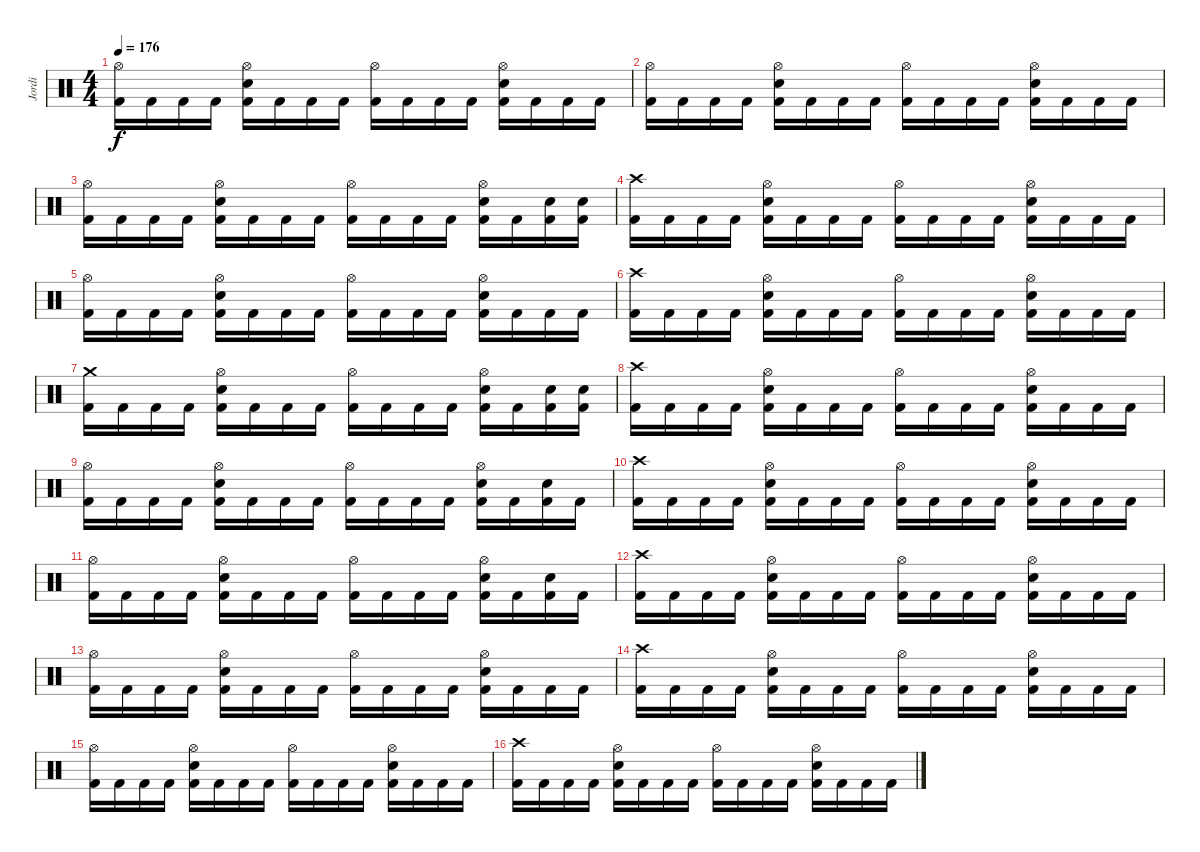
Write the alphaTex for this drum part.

\track ("Jordi" "Jordi") {instrument percussion}
\staff {score}
\articulation defaults
\ts (4 4)
\tempo 176
\clef neutral
\ks c
("Hi-Hat (open)" "Kick (hit) 2").16{dy f} "Kick (hit) 2".16 "Kick (hit) 2".16 "Kick (hit) 2".16 ("Hi-Hat (open)" "Snare (hit) 2" "Kick (hit) 2").16 "Kick (hit) 2".16 "Kick (hit) 2".16 "Kick (hit) 2".16 ("Hi-Hat (open)" "Kick (hit) 2").16 "Kick (hit) 2".16 "Kick (hit) 2".16 "Kick (hit) 2".16 ("Hi-Hat (open)" "Snare (hit) 2" "Kick (hit) 2").16 "Kick (hit) 2".16 "Kick (hit) 2".16 "Kick (hit) 2".16 |
("Hi-Hat (open)" "Kick (hit) 2").16 "Kick (hit) 2".16 "Kick (hit) 2".16 "Kick (hit) 2".16 ("Hi-Hat (open)" "Snare (hit) 2" "Kick (hit) 2").16 "Kick (hit) 2".16 "Kick (hit) 2".16 "Kick (hit) 2".16 ("Hi-Hat (open)" "Kick (hit) 2").16 "Kick (hit) 2".16 "Kick (hit) 2".16 "Kick (hit) 2".16 ("Hi-Hat (open)" "Snare (hit) 2" "Kick (hit) 2").16 "Kick (hit) 2".16 "Kick (hit) 2".16 "Kick (hit) 2".16 |
("Hi-Hat (open)" "Kick (hit) 2").16 "Kick (hit) 2".16 "Kick (hit) 2".16 "Kick (hit) 2".16 ("Hi-Hat (open)" "Snare (hit) 2" "Kick (hit) 2").16 "Kick (hit) 2".16 "Kick (hit) 2".16 "Kick (hit) 2".16 ("Hi-Hat (open)" "Kick (hit) 2").16 "Kick (hit) 2".16 "Kick (hit) 2".16 "Kick (hit) 2".16 ("Hi-Hat (open)" "Snare (hit) 2" "Kick (hit) 2").16 "Kick (hit) 2".16 ("Snare (hit) 2" "Kick (hit) 2").16 ("Snare (hit) 2" "Kick (hit) 2").16 |
("Crash high (hit)" "Kick (hit) 2").16 "Kick (hit) 2".16 "Kick (hit) 2".16 "Kick (hit) 2".16 ("Hi-Hat (open)" "Snare (hit) 2" "Kick (hit) 2").16 "Kick (hit) 2".16 "Kick (hit) 2".16 "Kick (hit) 2".16 ("Hi-Hat (open)" "Kick (hit) 2").16 "Kick (hit) 2".16 "Kick (hit) 2".16 "Kick (hit) 2".16 ("Hi-Hat (open)" "Snare (hit) 2" "Kick (hit) 2").16 "Kick (hit) 2".16 "Kick (hit) 2".16 "Kick (hit) 2".16 |
("Hi-Hat (open)" "Kick (hit) 2").16 "Kick (hit) 2".16 "Kick (hit) 2".16 "Kick (hit) 2".16 ("Hi-Hat (open)" "Snare (hit) 2" "Kick (hit) 2").16 "Kick (hit) 2".16 "Kick (hit) 2".16 "Kick (hit) 2".16 ("Hi-Hat (open)" "Kick (hit) 2").16 "Kick (hit) 2".16 "Kick (hit) 2".16 "Kick (hit) 2".16 ("Hi-Hat (open)" "Snare (hit) 2" "Kick (hit) 2").16 "Kick (hit) 2".16 "Kick (hit) 2".16 "Kick (hit) 2".16 |
("Crash high (hit)" "Kick (hit) 2").16 "Kick (hit) 2".16 "Kick (hit) 2".16 "Kick (hit) 2".16 ("Hi-Hat (open)" "Snare (hit) 2" "Kick (hit) 2").16 "Kick (hit) 2".16 "Kick (hit) 2".16 "Kick (hit) 2".16 ("Hi-Hat (open)" "Kick (hit) 2").16 "Kick (hit) 2".16 "Kick (hit) 2".16 "Kick (hit) 2".16 ("Hi-Hat (open)" "Snare (hit) 2" "Kick (hit) 2").16 "Kick (hit) 2".16 "Kick (hit) 2".16 "Kick (hit) 2".16 |
("Crash medium (hit)" "Kick (hit) 2").16 "Kick (hit) 2".16 "Kick (hit) 2".16 "Kick (hit) 2".16 ("Hi-Hat (open)" "Snare (hit) 2" "Kick (hit) 2").16 "Kick (hit) 2".16 "Kick (hit) 2".16 "Kick (hit) 2".16 ("Hi-Hat (open)" "Kick (hit) 2").16 "Kick (hit) 2".16 "Kick (hit) 2".16 "Kick (hit) 2".16 ("Hi-Hat (open)" "Snare (hit) 2" "Kick (hit) 2").16 "Kick (hit) 2".16 ("Snare (hit) 2" "Kick (hit) 2").16 ("Snare (hit) 2" "Kick (hit) 2").16 |
("Crash high (hit)" "Kick (hit) 2").16 "Kick (hit) 2".16 "Kick (hit) 2".16 "Kick (hit) 2".16 ("Hi-Hat (open)" "Snare (hit) 2" "Kick (hit) 2").16 "Kick (hit) 2".16 "Kick (hit) 2".16 "Kick (hit) 2".16 ("Hi-Hat (open)" "Kick (hit) 2").16 "Kick (hit) 2".16 "Kick (hit) 2".16 "Kick (hit) 2".16 ("Hi-Hat (open)" "Snare (hit) 2" "Kick (hit) 2").16 "Kick (hit) 2".16 "Kick (hit) 2".16 "Kick (hit) 2".16 |
("Hi-Hat (open)" "Kick (hit) 2").16 "Kick (hit) 2".16 "Kick (hit) 2".16 "Kick (hit) 2".16 ("Hi-Hat (open)" "Snare (hit) 2" "Kick (hit) 2").16 "Kick (hit) 2".16 "Kick (hit) 2".16 "Kick (hit) 2".16 ("Hi-Hat (open)" "Kick (hit) 2").16 "Kick (hit) 2".16 "Kick (hit) 2".16 "Kick (hit) 2".16 ("Hi-Hat (open)" "Snare (hit) 2" "Kick (hit) 2").16 "Kick (hit) 2".16 ("Snare (hit) 2" "Kick (hit) 2").16 "Kick (hit) 2".16 |
("Crash high (hit)" "Kick (hit) 2").16 "Kick (hit) 2".16 "Kick (hit) 2".16 "Kick (hit) 2".16 ("Hi-Hat (open)" "Snare (hit) 2" "Kick (hit) 2").16 "Kick (hit) 2".16 "Kick (hit) 2".16 "Kick (hit) 2".16 ("Hi-Hat (open)" "Kick (hit) 2").16 "Kick (hit) 2".16 "Kick (hit) 2".16 "Kick (hit) 2".16 ("Hi-Hat (open)" "Snare (hit) 2" "Kick (hit) 2").16 "Kick (hit) 2".16 "Kick (hit) 2".16 "Kick (hit) 2".16 |
("Hi-Hat (open)" "Kick (hit) 2").16 "Kick (hit) 2".16 "Kick (hit) 2".16 "Kick (hit) 2".16 ("Hi-Hat (open)" "Snare (hit) 2" "Kick (hit) 2").16 "Kick (hit) 2".16 "Kick (hit) 2".16 "Kick (hit) 2".16 ("Hi-Hat (open)" "Kick (hit) 2").16 "Kick (hit) 2".16 "Kick (hit) 2".16 "Kick (hit) 2".16 ("Hi-Hat (open)" "Snare (hit) 2" "Kick (hit) 2").16 "Kick (hit) 2".16 ("Snare (hit) 2" "Kick (hit) 2").16 "Kick (hit) 2".16 |
("Crash high (hit)" "Kick (hit) 2").16 "Kick (hit) 2".16 "Kick (hit) 2".16 "Kick (hit) 2".16 ("Hi-Hat (open)" "Snare (hit) 2" "Kick (hit) 2").16 "Kick (hit) 2".16 "Kick (hit) 2".16 "Kick (hit) 2".16 ("Hi-Hat (open)" "Kick (hit) 2").16 "Kick (hit) 2".16 "Kick (hit) 2".16 "Kick (hit) 2".16 ("Hi-Hat (open)" "Snare (hit) 2" "Kick (hit) 2").16 "Kick (hit) 2".16 "Kick (hit) 2".16 "Kick (hit) 2".16 |
("Hi-Hat (open)" "Kick (hit) 2").16 "Kick (hit) 2".16 "Kick (hit) 2".16 "Kick (hit) 2".16 ("Hi-Hat (open)" "Snare (hit) 2" "Kick (hit) 2").16 "Kick (hit) 2".16 "Kick (hit) 2".16 "Kick (hit) 2".16 ("Hi-Hat (open)" "Kick (hit) 2").16 "Kick (hit) 2".16 "Kick (hit) 2".16 "Kick (hit) 2".16 ("Hi-Hat (open)" "Snare (hit) 2" "Kick (hit) 2").16 "Kick (hit) 2".16 "Kick (hit) 2".16 "Kick (hit) 2".16 |
("Crash high (hit)" "Kick (hit) 2").16 "Kick (hit) 2".16 "Kick (hit) 2".16 "Kick (hit) 2".16 ("Hi-Hat (open)" "Snare (hit) 2" "Kick (hit) 2").16 "Kick (hit) 2".16 "Kick (hit) 2".16 "Kick (hit) 2".16 ("Hi-Hat (open)" "Kick (hit) 2").16 "Kick (hit) 2".16 "Kick (hit) 2".16 "Kick (hit) 2".16 ("Hi-Hat (open)" "Snare (hit) 2" "Kick (hit) 2").16 "Kick (hit) 2".16 "Kick (hit) 2".16 "Kick (hit) 2".16 |
("Hi-Hat (open)" "Kick (hit) 2").16 "Kick (hit) 2".16 "Kick (hit) 2".16 "Kick (hit) 2".16 ("Hi-Hat (open)" "Snare (hit) 2" "Kick (hit) 2").16 "Kick (hit) 2".16 "Kick (hit) 2".16 "Kick (hit) 2".16 ("Hi-Hat (open)" "Kick (hit) 2").16 "Kick (hit) 2".16 "Kick (hit) 2".16 "Kick (hit) 2".16 ("Hi-Hat (open)" "Snare (hit) 2" "Kick (hit) 2").16 "Kick (hit) 2".16 "Kick (hit) 2".16 "Kick (hit) 2".16 |
("Crash high (hit)" "Kick (hit) 2").16 "Kick (hit) 2".16 "Kick (hit) 2".16 "Kick (hit) 2".16 ("Hi-Hat (open)" "Snare (hit) 2" "Kick (hit) 2").16 "Kick (hit) 2".16 "Kick (hit) 2".16 "Kick (hit) 2".16 ("Hi-Hat (open)" "Kick (hit) 2").16 "Kick (hit) 2".16 "Kick (hit) 2".16 "Kick (hit) 2".16 ("Hi-Hat (open)" "Snare (hit) 2" "Kick (hit) 2").16 "Kick (hit) 2".16 "Kick (hit) 2".16 "Kick (hit) 2".16
